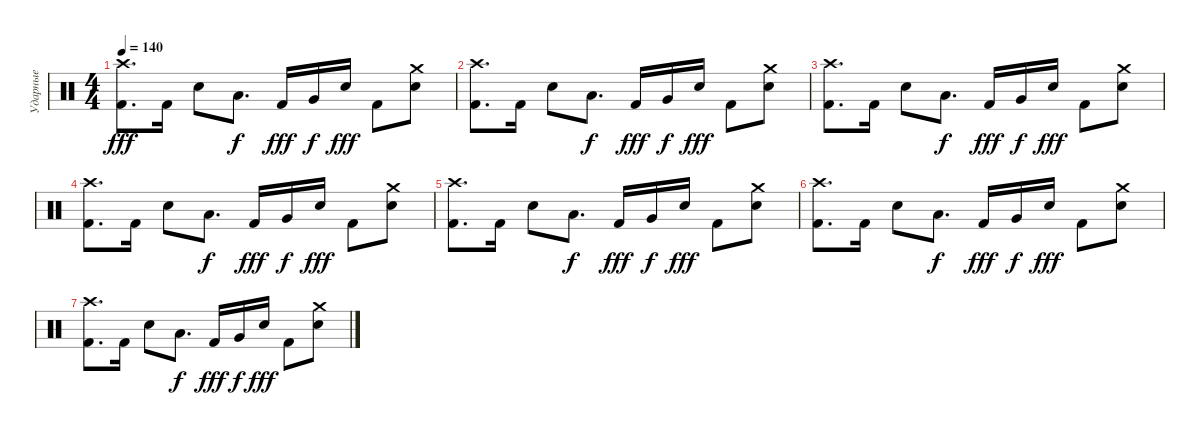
\track ("Ударные" "Ударные") {instrument percussion}
\staff {score}
\articulation defaults
\ts (4 4)
\tempo 140
\clef neutral
\ks c
("Kick (hit) 2" "Crash high (hit)").8{d dy fff} "Kick (hit) 2".16 "Electric Snare (hit)".8 "Low Floor Tom (hit)".8{d dy f} "Kick (hit) 2".16{dy fff} "Very Low Tom (hit)".16{dy f} "Electric Snare (hit)".16{dy fff} "Kick (hit) 2".8 ("Electric Snare (hit)" "Crash medium (hit)").8 |
("Kick (hit) 2" "Crash high (hit)").8{d} "Kick (hit) 2".16 "Electric Snare (hit)".8 "Low Floor Tom (hit)".8{d dy f} "Kick (hit) 2".16{dy fff} "Very Low Tom (hit)".16{dy f} "Electric Snare (hit)".16{dy fff} "Kick (hit) 2".8 ("Electric Snare (hit)" "Crash medium (hit)").8 |
("Kick (hit) 2" "Crash high (hit)").8{d} "Kick (hit) 2".16 "Electric Snare (hit)".8 "Low Floor Tom (hit)".8{d dy f} "Kick (hit) 2".16{dy fff} "Very Low Tom (hit)".16{dy f} "Electric Snare (hit)".16{dy fff} "Kick (hit) 2".8 ("Electric Snare (hit)" "Crash medium (hit)").8 |
("Kick (hit) 2" "Crash high (hit)").8{d} "Kick (hit) 2".16 "Electric Snare (hit)".8 "Low Floor Tom (hit)".8{d dy f} "Kick (hit) 2".16{dy fff} "Very Low Tom (hit)".16{dy f} "Electric Snare (hit)".16{dy fff} "Kick (hit) 2".8 ("Electric Snare (hit)" "Crash medium (hit)").8 |
("Kick (hit) 2" "Crash high (hit)").8{d} "Kick (hit) 2".16 "Electric Snare (hit)".8 "Low Floor Tom (hit)".8{d dy f} "Kick (hit) 2".16{dy fff} "Very Low Tom (hit)".16{dy f} "Electric Snare (hit)".16{dy fff} "Kick (hit) 2".8 ("Electric Snare (hit)" "Crash medium (hit)").8 |
("Kick (hit) 2" "Crash high (hit)").8{d} "Kick (hit) 2".16 "Electric Snare (hit)".8 "Low Floor Tom (hit)".8{d dy f} "Kick (hit) 2".16{dy fff} "Very Low Tom (hit)".16{dy f} "Electric Snare (hit)".16{dy fff} "Kick (hit) 2".8 ("Electric Snare (hit)" "Crash medium (hit)").8 |
("Kick (hit) 2" "Crash high (hit)").8{d} "Kick (hit) 2".16 "Electric Snare (hit)".8 "Low Floor Tom (hit)".8{d dy f} "Kick (hit) 2".16{dy fff} "Very Low Tom (hit)".16{dy f} "Electric Snare (hit)".16{dy fff} "Kick (hit) 2".8 ("Electric Snare (hit)" "Crash medium (hit)").8
